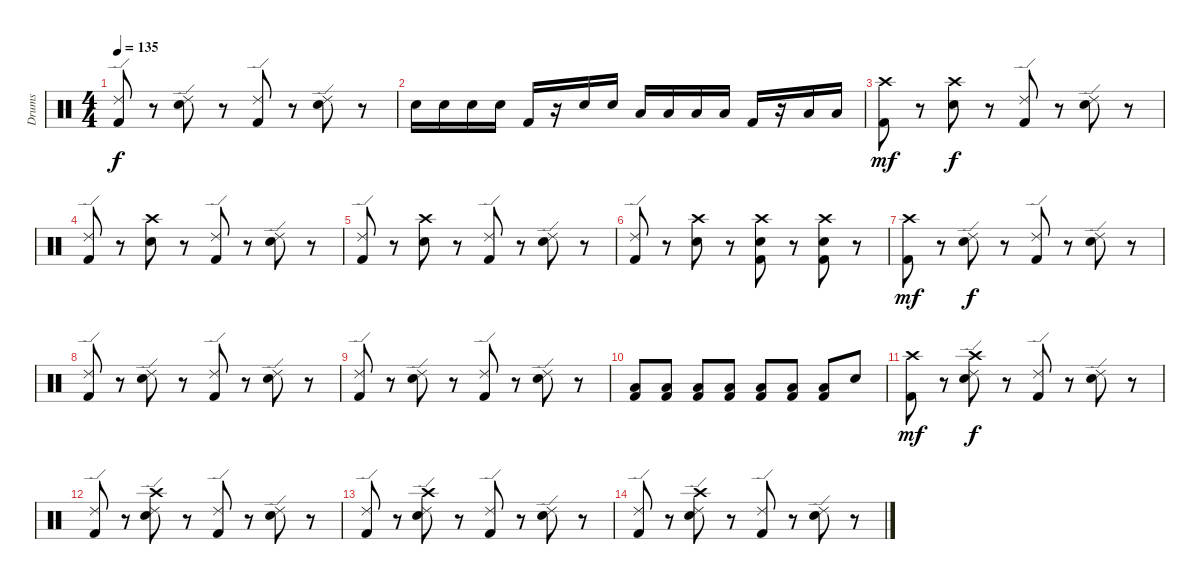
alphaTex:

\track ("Drums" "Drums") {instrument percussion}
\staff {score}
\articulation defaults
\ts (4 4)
\tempo 135
\clef neutral
\ks c
("Ride (edge) 2" "Kick (hit) 2").8{dy f} r.8 ("Ride (edge) 2" "Snare (hit) 2").8 r.8 ("Ride (edge) 2" "Kick (hit) 2").8 r.8 ("Ride (edge) 2" "Snare (hit) 2").8 r.8 |
"Snare (hit) 2".16 "Snare (hit) 2".16 "Snare (hit) 2".16 "Snare (hit) 2".16 "Kick (hit) 2".16 r.16 "Snare (hit) 2".16 "Snare (hit) 2".16 "Low Tom (hit)".16 "Low Tom (hit)".16 "Low Tom (hit)".16 "Low Tom (hit)".16 "Kick (hit) 2".16 r.16 "Low Floor Tom (hit)".16 "Low Floor Tom (hit)".16 |
("Crash high (hit)" "Kick (hit) 2").8{dy mf} r.8 ("Crash high (hit)" "Snare (hit) 2").8{dy f} r.8 ("Ride (edge) 2" "Kick (hit) 2").8 r.8 ("Ride (edge) 2" "Snare (hit) 2").8 r.8 |
("Ride (edge) 2" "Kick (hit) 2").8 r.8 ("Crash high (hit)" "Snare (hit) 2").8 r.8 ("Ride (edge) 2" "Kick (hit) 2").8 r.8 ("Ride (edge) 2" "Snare (hit) 2").8 r.8 |
("Ride (edge) 2" "Kick (hit) 2").8 r.8 ("Crash high (hit)" "Snare (hit) 2").8 r.8 ("Ride (edge) 2" "Kick (hit) 2").8 r.8 ("Ride (edge) 2" "Snare (hit) 2").8 r.8 |
("Ride (edge) 2" "Kick (hit) 2").8 r.8 ("Crash high (hit)" "Snare (hit) 2").8 r.8 ("Crash high (hit)" "Snare (hit) 2" "Kick (hit) 2").8 r.8 ("Crash high (hit)" "Snare (hit) 2" "Kick (hit) 2").8 r.8 |
("Crash high (hit)" "Kick (hit) 2").8{dy mf} r.8 ("Ride (edge) 2" "Snare (hit) 2").8{dy f} r.8 ("Ride (edge) 2" "Kick (hit) 2").8 r.8 ("Ride (edge) 2" "Snare (hit) 2").8 r.8 |
("Ride (edge) 2" "Kick (hit) 2").8 r.8 ("Ride (edge) 2" "Snare (hit) 2").8 r.8 ("Ride (edge) 2" "Kick (hit) 2").8 r.8 ("Ride (edge) 2" "Snare (hit) 2").8 r.8 |
("Ride (edge) 2" "Kick (hit) 2").8 r.8 ("Ride (edge) 2" "Snare (hit) 2").8 r.8 ("Ride (edge) 2" "Kick (hit) 2").8 r.8 ("Ride (edge) 2" "Snare (hit) 2").8 r.8 |
("Low Tom (hit)" "Kick (hit) 2").8 ("Low Tom (hit)" "Kick (hit) 2").8 ("Low Tom (hit)" "Kick (hit) 2").8 ("Low Tom (hit)" "Kick (hit) 2").8 ("Low Tom (hit)" "Kick (hit) 2").8 ("Low Tom (hit)" "Kick (hit) 2").8 ("Low Tom (hit)" "Kick (hit) 2").8 "Snare (hit) 2".8 |
("Crash high (hit)" "Kick (hit) 2").8{dy mf} r.8 ("Ride (edge) 2" "Crash high (hit)" "Snare (hit) 2").8{dy f} r.8 ("Ride (edge) 2" "Kick (hit) 2").8 r.8 ("Ride (edge) 2" "Snare (hit) 2").8 r.8 |
("Ride (edge) 2" "Kick (hit) 2").8 r.8 ("Ride (edge) 2" "Crash high (hit)" "Snare (hit) 2").8 r.8 ("Ride (edge) 2" "Kick (hit) 2").8 r.8 ("Ride (edge) 2" "Snare (hit) 2").8 r.8 |
("Ride (edge) 2" "Kick (hit) 2").8 r.8 ("Ride (edge) 2" "Crash high (hit)" "Snare (hit) 2").8 r.8 ("Ride (edge) 2" "Kick (hit) 2").8 r.8 ("Ride (edge) 2" "Snare (hit) 2").8 r.8 |
("Ride (edge) 2" "Kick (hit) 2").8 r.8 ("Ride (edge) 2" "Crash high (hit)" "Snare (hit) 2").8 r.8 ("Ride (edge) 2" "Kick (hit) 2").8 r.8 ("Ride (edge) 2" "Snare (hit) 2").8 r.8
